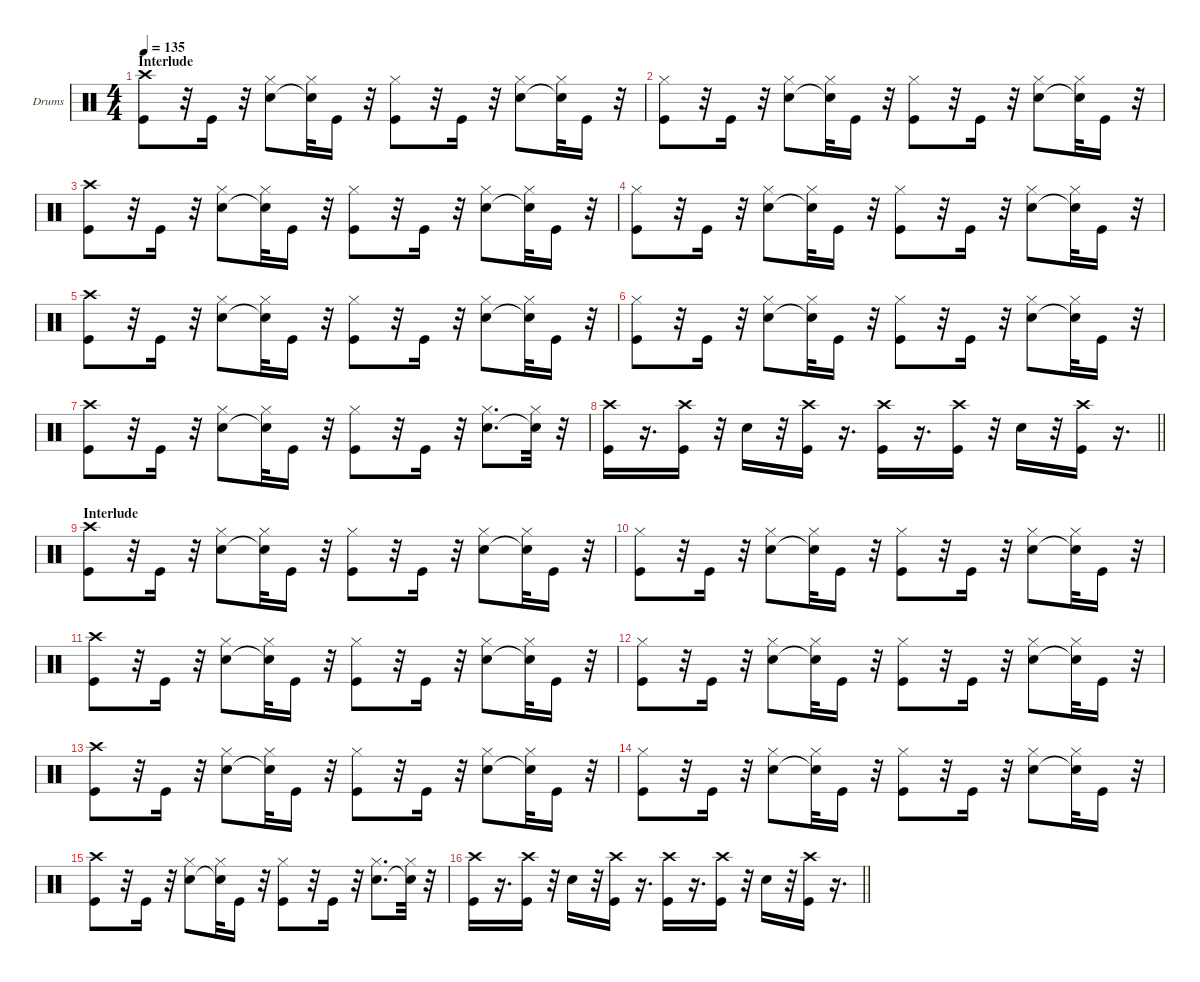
\hideDynamics
\bracketExtendMode groupsimilarinstruments
\firstSystemTrackNameOrientation horizontal
\otherSystemsTrackNameOrientation horizontal
\track ("Drumkit" "Drums") {solo instrument percussion}
\staff {score}
\articulation defaults
\ts (4 4)
\section ("" "Interlude")
\tempo 135
\clef neutral
\scale
0.333333
\ks c
("Crash high (hit)" "Kick (hit)").8{dy mf} r.32 "Kick (hit)".16 r.32 ("Hi-Hat (closed)" "Snare (hit) 2").8 ("Hi-Hat (closed)" "Snare (hit) 2"{t}).32 "Kick (hit)".16 r.32 ("Kick (hit)" "Hi-Hat (closed)").8 r.32 "Kick (hit)".16 r.32 ("Hi-Hat (closed)" "Snare (hit) 2").8 ("Hi-Hat (closed)" "Snare (hit) 2"{t}).32 "Kick (hit)".16 r.32 |
\scale
0.333333 ("Kick (hit)" "Hi-Hat (closed)").8 r.32 "Kick (hit)".16 r.32 ("Hi-Hat (closed)" "Snare (hit) 2").8 ("Hi-Hat (closed)" "Snare (hit) 2"{t}).32 "Kick (hit)".16 r.32 ("Kick (hit)" "Hi-Hat (closed)").8 r.32 "Kick (hit)".16 r.32 ("Hi-Hat (closed)" "Snare (hit) 2").8 ("Hi-Hat (closed)" "Snare (hit) 2"{t}).32 "Kick (hit)".16 r.32 |
\scale
0.333333 ("Crash high (hit)" "Kick (hit)").8 r.32 "Kick (hit)".16 r.32 ("Hi-Hat (closed)" "Snare (hit) 2").8 ("Hi-Hat (closed)" "Snare (hit) 2"{t}).32 "Kick (hit)".16 r.32 ("Kick (hit)" "Hi-Hat (closed)").8 r.32 "Kick (hit)".16 r.32 ("Hi-Hat (closed)" "Snare (hit) 2").8 ("Hi-Hat (closed)" "Snare (hit) 2"{t}).32 "Kick (hit)".16 r.32 |
\scale
0.333333 ("Kick (hit)" "Hi-Hat (closed)").8 r.32 "Kick (hit)".16 r.32 ("Hi-Hat (closed)" "Snare (hit) 2").8 ("Hi-Hat (closed)" "Snare (hit) 2"{t}).32 "Kick (hit)".16 r.32 ("Kick (hit)" "Hi-Hat (closed)").8 r.32 "Kick (hit)".16 r.32 ("Hi-Hat (closed)" "Snare (hit) 2").8 ("Hi-Hat (closed)" "Snare (hit) 2"{t}).32 "Kick (hit)".16 r.32 |
\scale
0.333333 ("Crash high (hit)" "Kick (hit)").8 r.32 "Kick (hit)".16 r.32 ("Hi-Hat (closed)" "Snare (hit) 2").8 ("Hi-Hat (closed)" "Snare (hit) 2"{t}).32 "Kick (hit)".16 r.32 ("Kick (hit)" "Hi-Hat (closed)").8 r.32 "Kick (hit)".16 r.32 ("Hi-Hat (closed)" "Snare (hit) 2").8 ("Hi-Hat (closed)" "Snare (hit) 2"{t}).32 "Kick (hit)".16 r.32 |
\scale
0.333333 ("Kick (hit)" "Hi-Hat (closed)").8 r.32 "Kick (hit)".16 r.32 ("Hi-Hat (closed)" "Snare (hit) 2").8 ("Hi-Hat (closed)" "Snare (hit) 2"{t}).32 "Kick (hit)".16 r.32 ("Kick (hit)" "Hi-Hat (closed)").8 r.32 "Kick (hit)".16 r.32 ("Hi-Hat (closed)" "Snare (hit) 2").8 ("Hi-Hat (closed)" "Snare (hit) 2"{t}).32 "Kick (hit)".16 r.32 |
\scale
0.333333 ("Crash high (hit)" "Kick (hit)").8 r.32 "Kick (hit)".16 r.32 ("Hi-Hat (closed)" "Snare (hit) 2").8 ("Hi-Hat (closed)" "Snare (hit) 2"{t}).32 "Kick (hit)".16 r.32 ("Kick (hit)" "Hi-Hat (closed)").8 r.32 "Kick (hit)".16 r.32 ("Hi-Hat (closed)" "Snare (hit) 2").8{d} ("Hi-Hat (closed)" "Snare (hit) 2"{t}).32 r.32 |
\scale
0.333333
\barLineRight lightlight
("Kick (hit)" "Crash high (hit)").16 r.16{d} ("Crash high (hit)" "Kick (hit)").16 r.32 "Snare (hit) 2".16 r.32 ("Crash high (hit)" "Kick (hit)").16 r.16{d} ("Kick (hit)" "Crash high (hit)").16 r.16{d} ("Crash high (hit)" "Kick (hit)").16 r.32 "Snare (hit) 2".16 r.32 ("Crash high (hit)" "Kick (hit)").16 r.16{d} |
\section ("" "Interlude")
\scale
0.333333 ("Crash high (hit)" "Kick (hit)").8 r.32 "Kick (hit)".16 r.32 ("Hi-Hat (closed)" "Snare (hit) 2").8 ("Hi-Hat (closed)" "Snare (hit) 2"{t}).32 "Kick (hit)".16 r.32 ("Kick (hit)" "Hi-Hat (closed)").8 r.32 "Kick (hit)".16 r.32 ("Hi-Hat (closed)" "Snare (hit) 2").8 ("Hi-Hat (closed)" "Snare (hit) 2"{t}).32 "Kick (hit)".16 r.32 |
\scale
0.333333 ("Kick (hit)" "Hi-Hat (closed)").8 r.32 "Kick (hit)".16 r.32 ("Hi-Hat (closed)" "Snare (hit) 2").8 ("Hi-Hat (closed)" "Snare (hit) 2"{t}).32 "Kick (hit)".16 r.32 ("Kick (hit)" "Hi-Hat (closed)").8 r.32 "Kick (hit)".16 r.32 ("Hi-Hat (closed)" "Snare (hit) 2").8 ("Hi-Hat (closed)" "Snare (hit) 2"{t}).32 "Kick (hit)".16 r.32 |
\scale
0.333333 ("Crash high (hit)" "Kick (hit)").8 r.32 "Kick (hit)".16 r.32 ("Hi-Hat (closed)" "Snare (hit) 2").8 ("Hi-Hat (closed)" "Snare (hit) 2"{t}).32 "Kick (hit)".16 r.32 ("Kick (hit)" "Hi-Hat (closed)").8 r.32 "Kick (hit)".16 r.32 ("Hi-Hat (closed)" "Snare (hit) 2").8 ("Hi-Hat (closed)" "Snare (hit) 2"{t}).32 "Kick (hit)".16 r.32 |
\scale
0.333333 ("Kick (hit)" "Hi-Hat (closed)").8 r.32 "Kick (hit)".16 r.32 ("Hi-Hat (closed)" "Snare (hit) 2").8 ("Hi-Hat (closed)" "Snare (hit) 2"{t}).32 "Kick (hit)".16 r.32 ("Kick (hit)" "Hi-Hat (closed)").8 r.32 "Kick (hit)".16 r.32 ("Hi-Hat (closed)" "Snare (hit) 2").8 ("Hi-Hat (closed)" "Snare (hit) 2"{t}).32 "Kick (hit)".16 r.32 |
\scale
0.333333 ("Crash high (hit)" "Kick (hit)").8 r.32 "Kick (hit)".16 r.32 ("Hi-Hat (closed)" "Snare (hit) 2").8 ("Hi-Hat (closed)" "Snare (hit) 2"{t}).32 "Kick (hit)".16 r.32 ("Kick (hit)" "Hi-Hat (closed)").8 r.32 "Kick (hit)".16 r.32 ("Hi-Hat (closed)" "Snare (hit) 2").8 ("Hi-Hat (closed)" "Snare (hit) 2"{t}).32 "Kick (hit)".16 r.32 |
\scale
0.333333 ("Kick (hit)" "Hi-Hat (closed)").8 r.32 "Kick (hit)".16 r.32 ("Hi-Hat (closed)" "Snare (hit) 2").8 ("Hi-Hat (closed)" "Snare (hit) 2"{t}).32 "Kick (hit)".16 r.32 ("Kick (hit)" "Hi-Hat (closed)").8 r.32 "Kick (hit)".16 r.32 ("Hi-Hat (closed)" "Snare (hit) 2").8 ("Hi-Hat (closed)" "Snare (hit) 2"{t}).32 "Kick (hit)".16 r.32 |
\scale
0.333333 ("Crash high (hit)" "Kick (hit)").8 r.32 "Kick (hit)".16 r.32 ("Hi-Hat (closed)" "Snare (hit) 2").8 ("Hi-Hat (closed)" "Snare (hit) 2"{t}).32 "Kick (hit)".16 r.32 ("Kick (hit)" "Hi-Hat (closed)").8 r.32 "Kick (hit)".16 r.32 ("Hi-Hat (closed)" "Snare (hit) 2").8{d} ("Hi-Hat (closed)" "Snare (hit) 2"{t}).32 r.32 |
\scale
0.333333
\barLineRight lightlight
("Kick (hit)" "Crash high (hit)").16 r.16{d} ("Crash high (hit)" "Kick (hit)").16 r.32 "Snare (hit) 2".16 r.32 ("Crash high (hit)" "Kick (hit)").16 r.16{d} ("Kick (hit)" "Crash high (hit)").16 r.16{d} ("Crash high (hit)" "Kick (hit)").16 r.32 "Snare (hit) 2".16 r.32 ("Crash high (hit)" "Kick (hit)").16 r.16{d}
